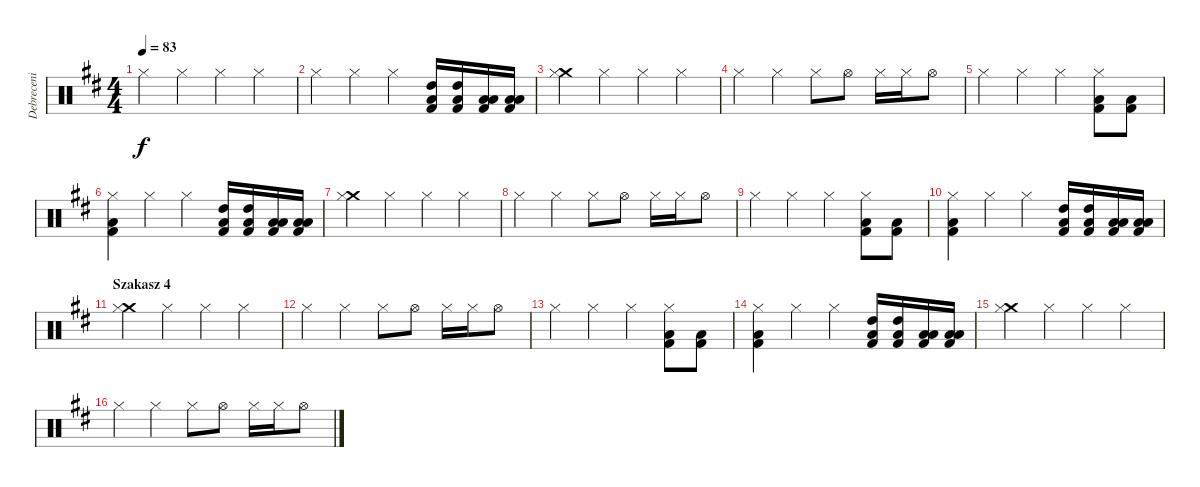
\track ("Debreceni Ferenc \"Ciki\" Dob" "Debreceni ") {instrument percussion}
\staff {score}
\articulation defaults
\ts (4 4)
\tempo 83
\clef neutral
\ks d "Hi-Hat (closed)".4{dy f} "Hi-Hat (closed)".4 "Hi-Hat (closed)".4 "Hi-Hat (closed)".4
|
"Hi-Hat (closed)".4 "Hi-Hat (closed)".4 "Hi-Hat (closed)".4 ("High Tom (hit)" "Low Floor Tom (hit)" "Kick (hit) 2").16 ("High Tom (hit)" "Low Floor Tom (hit)" "Kick (hit) 2").16 ("Low Tom (hit)" "Low Floor Tom (hit)" "Kick (hit) 2").16 ("Low Tom (hit)" "Low Floor Tom (hit)" "Kick (hit) 2").16 |
("Crash medium (hit)" "Hi-Hat (closed)").4 "Hi-Hat (closed)".4 "Hi-Hat (closed)".4 "Hi-Hat (closed)".4 |
"Hi-Hat (closed)".4 "Hi-Hat (closed)".4 "Hi-Hat (closed)".8 "Hi-Hat (open)".8 "Hi-Hat (closed)".16 "Hi-Hat (closed)".16 "Hi-Hat (open)".8 |
"Hi-Hat (closed)".4 "Hi-Hat (closed)".4 "Hi-Hat (closed)".4 ("Hi-Hat (closed)" "Low Tom (hit)" "Kick (hit) 2").8 ("Low Tom (hit)" "Kick (hit) 2").8 |
("Hi-Hat (closed)" "Low Tom (hit)" "Kick (hit) 2").4 "Hi-Hat (closed)".4 "Hi-Hat (closed)".4 ("High Tom (hit)" "Low Floor Tom (hit)" "Kick (hit) 2").16 ("High Tom (hit)" "Low Floor Tom (hit)" "Kick (hit) 2").16 ("Low Tom (hit)" "Low Floor Tom (hit)" "Kick (hit) 2").16 ("Low Tom (hit)" "Low Floor Tom (hit)" "Kick (hit) 2").16 |
("Crash medium (hit)" "Hi-Hat (closed)").4 "Hi-Hat (closed)".4 "Hi-Hat (closed)".4 "Hi-Hat (closed)".4 |
"Hi-Hat (closed)".4 "Hi-Hat (closed)".4 "Hi-Hat (closed)".8 "Hi-Hat (open)".8 "Hi-Hat (closed)".16 "Hi-Hat (closed)".16 "Hi-Hat (open)".8 |
"Hi-Hat (closed)".4 "Hi-Hat (closed)".4 "Hi-Hat (closed)".4 ("Hi-Hat (closed)" "Low Tom (hit)" "Kick (hit) 2").8 ("Low Tom (hit)" "Kick (hit) 2").8 |
("Hi-Hat (closed)" "Low Tom (hit)" "Kick (hit) 2").4 "Hi-Hat (closed)".4 "Hi-Hat (closed)".4 ("High Tom (hit)" "Low Floor Tom (hit)" "Kick (hit) 2").16 ("High Tom (hit)" "Low Floor Tom (hit)" "Kick (hit) 2").16 ("Low Tom (hit)" "Low Floor Tom (hit)" "Kick (hit) 2").16 ("Low Tom (hit)" "Low Floor Tom (hit)" "Kick (hit) 2").16 |
\section ("" "Szakasz 4")
("Crash medium (hit)" "Hi-Hat (closed)").4 "Hi-Hat (closed)".4 "Hi-Hat (closed)".4 "Hi-Hat (closed)".4 |
"Hi-Hat (closed)".4 "Hi-Hat (closed)".4 "Hi-Hat (closed)".8 "Hi-Hat (open)".8 "Hi-Hat (closed)".16 "Hi-Hat (closed)".16 "Hi-Hat (open)".8 |
"Hi-Hat (closed)".4 "Hi-Hat (closed)".4 "Hi-Hat (closed)".4 ("Hi-Hat (closed)" "Low Tom (hit)" "Kick (hit) 2").8 ("Low Tom (hit)" "Kick (hit) 2").8 |
("Hi-Hat (closed)" "Low Tom (hit)" "Kick (hit) 2").4 "Hi-Hat (closed)".4 "Hi-Hat (closed)".4 ("High Tom (hit)" "Low Floor Tom (hit)" "Kick (hit) 2").16 ("High Tom (hit)" "Low Floor Tom (hit)" "Kick (hit) 2").16 ("Low Tom (hit)" "Low Floor Tom (hit)" "Kick (hit) 2").16 ("Low Tom (hit)" "Low Floor Tom (hit)" "Kick (hit) 2").16 |
("Crash medium (hit)" "Hi-Hat (closed)").4 "Hi-Hat (closed)".4 "Hi-Hat (closed)".4 "Hi-Hat (closed)".4 |
"Hi-Hat (closed)".4 "Hi-Hat (closed)".4 "Hi-Hat (closed)".8 "Hi-Hat (open)".8 "Hi-Hat (closed)".16 "Hi-Hat (closed)".16 "Hi-Hat (open)".8
